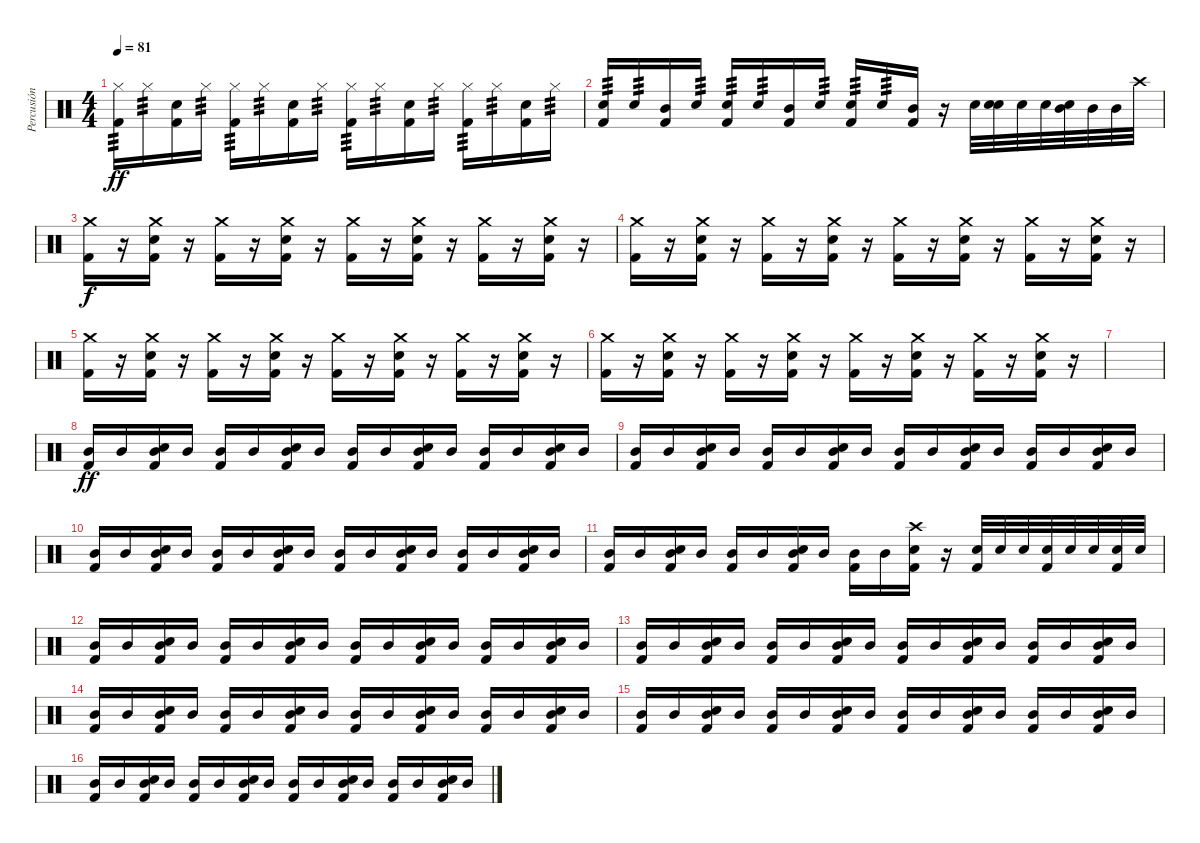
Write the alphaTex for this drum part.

\track ("Percusión" "Percusión") {instrument percussion}
\staff {score}
\articulation defaults
\ts (4 4)
\tempo 81
\clef neutral
\ks c
("Kick (hit) 2" "Hi-Hat (closed)").16{tp 3 dy ff} "Hi-Hat (closed)".16{tp 3} ("Kick (hit) 2" "Electric Snare (hit)").16 "Hi-Hat (closed)".16{tp 3} ("Kick (hit) 2" "Hi-Hat (closed)").16{tp 3} "Hi-Hat (closed)".16{tp 3} ("Kick (hit) 2" "Electric Snare (hit)").16 "Hi-Hat (closed)".16{tp 3} ("Kick (hit) 2" "Hi-Hat (closed)").16{tp 3} "Hi-Hat (closed)".16{tp 3} ("Kick (hit) 2" "Electric Snare (hit)").16 "Hi-Hat (closed)".16{tp 3} ("Kick (hit) 2" "Hi-Hat (closed)").16{tp 3} "Hi-Hat (closed)".16{tp 3} ("Kick (hit) 2" "Electric Snare (hit)").16 "Hi-Hat (closed)".16{tp 3} |
("Kick (hit) 2" "Electric Snare (hit)").16{tp 3} "Electric Snare (hit)".16{tp 3} ("Kick (hit) 2" "Mid Tom (hit)").16 "Electric Snare (hit)".16{tp 3} ("Kick (hit) 2" "Electric Snare (hit)").16{tp 3} "Electric Snare (hit)".16{tp 3} ("Kick (hit) 2" "Mid Tom (hit)").16 "Electric Snare (hit)".16{tp 3} ("Kick (hit) 2" "Electric Snare (hit)").16{tp 3} "Electric Snare (hit)".16{tp 3} ("Kick (hit) 2" "Mid Tom (hit)").16 r.16 "Electric Snare (hit)".32 ("Snare (hit) 2" "Electric Snare (hit)").32 "Electric Snare (hit)".32 "Electric Snare (hit)".32 ("Snare (hit) 2" "Mid Tom (hit)").32 "Mid Tom (hit)".32 "Mid Tom (hit)".32 "Crash high (hit)".32 |
("Kick (hit) 2" "Crash medium (hit)").16{dy f} r.16 ("Kick (hit) 2" "Electric Snare (hit)" "Crash medium (hit)").16 r.16 ("Kick (hit) 2" "Crash medium (hit)").16 r.16 ("Kick (hit) 2" "Electric Snare (hit)" "Crash medium (hit)").16 r.16 ("Kick (hit) 2" "Crash medium (hit)").16 r.16 ("Kick (hit) 2" "Electric Snare (hit)" "Crash medium (hit)").16 r.16 ("Kick (hit) 2" "Crash medium (hit)").16 r.16 ("Kick (hit) 2" "Electric Snare (hit)" "Crash medium (hit)").16 r.16 |
("Kick (hit) 2" "Crash medium (hit)").16 r.16 ("Kick (hit) 2" "Electric Snare (hit)" "Crash medium (hit)").16 r.16 ("Kick (hit) 2" "Crash medium (hit)").16 r.16 ("Kick (hit) 2" "Electric Snare (hit)" "Crash medium (hit)").16 r.16 ("Kick (hit) 2" "Crash medium (hit)").16 r.16 ("Kick (hit) 2" "Electric Snare (hit)" "Crash medium (hit)").16 r.16 ("Kick (hit) 2" "Crash medium (hit)").16 r.16 ("Kick (hit) 2" "Electric Snare (hit)" "Crash medium (hit)").16 r.16 |
("Kick (hit) 2" "Crash medium (hit)").16 r.16 ("Kick (hit) 2" "Electric Snare (hit)" "Crash medium (hit)").16 r.16 ("Kick (hit) 2" "Crash medium (hit)").16 r.16 ("Kick (hit) 2" "Electric Snare (hit)" "Crash medium (hit)").16 r.16 ("Kick (hit) 2" "Crash medium (hit)").16 r.16 ("Kick (hit) 2" "Electric Snare (hit)" "Crash medium (hit)").16 r.16 ("Kick (hit) 2" "Crash medium (hit)").16 r.16 ("Kick (hit) 2" "Electric Snare (hit)" "Crash medium (hit)").16 r.16 |
("Kick (hit) 2" "Crash medium (hit)").16 r.16 ("Kick (hit) 2" "Electric Snare (hit)" "Crash medium (hit)").16 r.16 ("Kick (hit) 2" "Crash medium (hit)").16 r.16 ("Kick (hit) 2" "Electric Snare (hit)" "Crash medium (hit)").16 r.16 ("Kick (hit) 2" "Crash medium (hit)").16 r.16 ("Kick (hit) 2" "Electric Snare (hit)" "Crash medium (hit)").16 r.16 ("Kick (hit) 2" "Crash medium (hit)").16 r.16 ("Kick (hit) 2" "Electric Snare (hit)" "Crash medium (hit)").16 r.16 |
|
("Kick (hit) 2" "Mid Tom (hit)").16{dy ff} "Mid Tom (hit)".16 ("Kick (hit) 2" "Electric Snare (hit)" "Mid Tom (hit)").16 "Mid Tom (hit)".16 ("Kick (hit) 2" "Mid Tom (hit)").16 "Mid Tom (hit)".16 ("Kick (hit) 2" "Electric Snare (hit)" "Mid Tom (hit)").16 "Mid Tom (hit)".16 ("Kick (hit) 2" "Mid Tom (hit)").16 "Mid Tom (hit)".16 ("Kick (hit) 2" "Electric Snare (hit)" "Mid Tom (hit)").16 "Mid Tom (hit)".16 ("Kick (hit) 2" "Mid Tom (hit)").16 "Mid Tom (hit)".16 ("Kick (hit) 2" "Electric Snare (hit)" "Mid Tom (hit)").16 "Mid Tom (hit)".16 |
("Kick (hit) 2" "Mid Tom (hit)").16 "Mid Tom (hit)".16 ("Kick (hit) 2" "Electric Snare (hit)" "Mid Tom (hit)").16 "Mid Tom (hit)".16 ("Kick (hit) 2" "Mid Tom (hit)").16 "Mid Tom (hit)".16 ("Kick (hit) 2" "Electric Snare (hit)" "Mid Tom (hit)").16 "Mid Tom (hit)".16 ("Kick (hit) 2" "Mid Tom (hit)").16 "Mid Tom (hit)".16 ("Kick (hit) 2" "Electric Snare (hit)" "Mid Tom (hit)").16 "Mid Tom (hit)".16 ("Kick (hit) 2" "Mid Tom (hit)").16 "Mid Tom (hit)".16 ("Kick (hit) 2" "Electric Snare (hit)" "Mid Tom (hit)").16 "Mid Tom (hit)".16 |
("Kick (hit) 2" "Mid Tom (hit)").16 "Mid Tom (hit)".16 ("Kick (hit) 2" "Electric Snare (hit)" "Mid Tom (hit)").16 "Mid Tom (hit)".16 ("Kick (hit) 2" "Mid Tom (hit)").16 "Mid Tom (hit)".16 ("Kick (hit) 2" "Electric Snare (hit)" "Mid Tom (hit)").16 "Mid Tom (hit)".16 ("Kick (hit) 2" "Mid Tom (hit)").16 "Mid Tom (hit)".16 ("Kick (hit) 2" "Electric Snare (hit)" "Mid Tom (hit)").16 "Mid Tom (hit)".16 ("Kick (hit) 2" "Mid Tom (hit)").16 "Mid Tom (hit)".16 ("Kick (hit) 2" "Electric Snare (hit)" "Mid Tom (hit)").16 "Mid Tom (hit)".16 |
("Kick (hit) 2" "Mid Tom (hit)").16 "Mid Tom (hit)".16 ("Kick (hit) 2" "Electric Snare (hit)" "Mid Tom (hit)").16 "Mid Tom (hit)".16 ("Kick (hit) 2" "Mid Tom (hit)").16 "Mid Tom (hit)".16 ("Kick (hit) 2" "Electric Snare (hit)" "Mid Tom (hit)").16 "Mid Tom (hit)".16 ("Kick (hit) 2" "Mid Tom (hit)").16 "Mid Tom (hit)".16 ("Kick (hit) 2" "Electric Snare (hit)" "Crash high (hit)").16 r.16 ("Kick (hit) 2" "Electric Snare (hit)").32 "Electric Snare (hit)".32 "Electric Snare (hit)".32 ("Kick (hit) 2" "Electric Snare (hit)").32 "Electric Snare (hit)".32 "Electric Snare (hit)".32 ("Kick (hit) 2" "Electric Snare (hit)").32 "Electric Snare (hit)".32 |
("Kick (hit) 2" "Mid Tom (hit)").16 "Mid Tom (hit)".16 ("Kick (hit) 2" "Electric Snare (hit)" "Mid Tom (hit)").16 "Mid Tom (hit)".16 ("Kick (hit) 2" "Mid Tom (hit)").16 "Mid Tom (hit)".16 ("Kick (hit) 2" "Electric Snare (hit)" "Mid Tom (hit)").16 "Mid Tom (hit)".16 ("Kick (hit) 2" "Mid Tom (hit)").16 "Mid Tom (hit)".16 ("Kick (hit) 2" "Electric Snare (hit)" "Mid Tom (hit)").16 "Mid Tom (hit)".16 ("Kick (hit) 2" "Mid Tom (hit)").16 "Mid Tom (hit)".16 ("Kick (hit) 2" "Electric Snare (hit)" "Mid Tom (hit)").16 "Mid Tom (hit)".16 |
("Kick (hit) 2" "Mid Tom (hit)").16 "Mid Tom (hit)".16 ("Kick (hit) 2" "Electric Snare (hit)" "Mid Tom (hit)").16 "Mid Tom (hit)".16 ("Kick (hit) 2" "Mid Tom (hit)").16 "Mid Tom (hit)".16 ("Kick (hit) 2" "Electric Snare (hit)" "Mid Tom (hit)").16 "Mid Tom (hit)".16 ("Kick (hit) 2" "Mid Tom (hit)").16 "Mid Tom (hit)".16 ("Kick (hit) 2" "Electric Snare (hit)" "Mid Tom (hit)").16 "Mid Tom (hit)".16 ("Kick (hit) 2" "Mid Tom (hit)").16 "Mid Tom (hit)".16 ("Kick (hit) 2" "Electric Snare (hit)" "Mid Tom (hit)").16 "Mid Tom (hit)".16 |
("Kick (hit) 2" "Mid Tom (hit)").16 "Mid Tom (hit)".16 ("Kick (hit) 2" "Electric Snare (hit)" "Mid Tom (hit)").16 "Mid Tom (hit)".16 ("Kick (hit) 2" "Mid Tom (hit)").16 "Mid Tom (hit)".16 ("Kick (hit) 2" "Electric Snare (hit)" "Mid Tom (hit)").16 "Mid Tom (hit)".16 ("Kick (hit) 2" "Mid Tom (hit)").16 "Mid Tom (hit)".16 ("Kick (hit) 2" "Electric Snare (hit)" "Mid Tom (hit)").16 "Mid Tom (hit)".16 ("Kick (hit) 2" "Mid Tom (hit)").16 "Mid Tom (hit)".16 ("Kick (hit) 2" "Electric Snare (hit)" "Mid Tom (hit)").16 "Mid Tom (hit)".16 |
("Kick (hit) 2" "Mid Tom (hit)").16 "Mid Tom (hit)".16 ("Kick (hit) 2" "Electric Snare (hit)" "Mid Tom (hit)").16 "Mid Tom (hit)".16 ("Kick (hit) 2" "Mid Tom (hit)").16 "Mid Tom (hit)".16 ("Kick (hit) 2" "Electric Snare (hit)" "Mid Tom (hit)").16 "Mid Tom (hit)".16 ("Kick (hit) 2" "Mid Tom (hit)").16 "Mid Tom (hit)".16 ("Kick (hit) 2" "Electric Snare (hit)" "Mid Tom (hit)").16 "Mid Tom (hit)".16 ("Kick (hit) 2" "Mid Tom (hit)").16 "Mid Tom (hit)".16 ("Kick (hit) 2" "Electric Snare (hit)" "Mid Tom (hit)").16 "Mid Tom (hit)".16 |
("Kick (hit) 2" "Mid Tom (hit)").16 "Mid Tom (hit)".16 ("Kick (hit) 2" "Electric Snare (hit)" "Mid Tom (hit)").16 "Mid Tom (hit)".16 ("Kick (hit) 2" "Mid Tom (hit)").16 "Mid Tom (hit)".16 ("Kick (hit) 2" "Electric Snare (hit)" "Mid Tom (hit)").16 "Mid Tom (hit)".16 ("Kick (hit) 2" "Mid Tom (hit)").16 "Mid Tom (hit)".16 ("Kick (hit) 2" "Electric Snare (hit)" "Mid Tom (hit)").16 "Mid Tom (hit)".16 ("Kick (hit) 2" "Mid Tom (hit)").16 "Mid Tom (hit)".16 ("Kick (hit) 2" "Electric Snare (hit)" "Mid Tom (hit)").16 "Mid Tom (hit)".16
